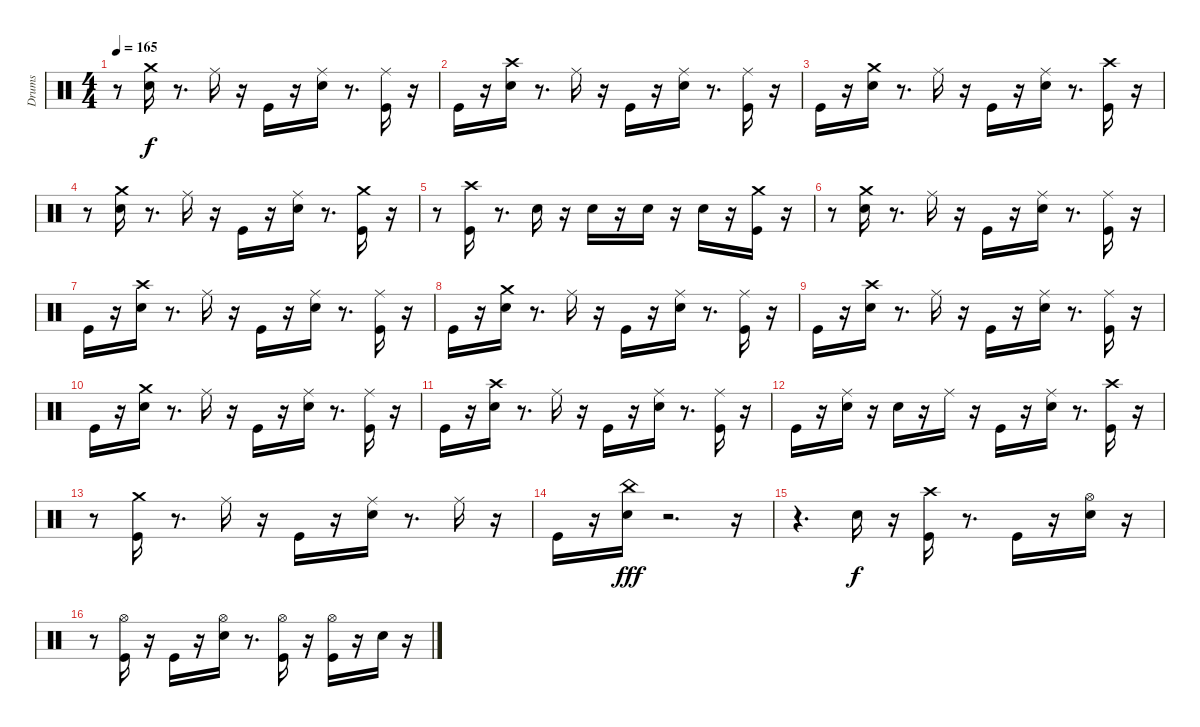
\track ("Drums" "Drums") {instrument percussion}
\staff {score}
\articulation defaults
\ts (4 4)
\tempo 165
\clef neutral
\ks c
r.8{dy f} ("Electric Snare (hit)" "Crash medium (hit)").16 r.8{d} "Ride (middle)".16 r.16 "Kick (hit)".16 r.16 ("Electric Snare (hit)" "Ride (middle)").16 r.8{d} ("Kick (hit)" "Ride (middle)").16 r.16 |
"Kick (hit)".16 r.16 ("Electric Snare (hit)" "Crash high (hit)").16 r.8{d} "Ride (middle)".16 r.16 "Kick (hit)".16 r.16 ("Electric Snare (hit)" "Ride (middle)").16 r.8{d} ("Kick (hit)" "Ride (middle)").16 r.16 |
"Kick (hit)".16 r.16 ("Electric Snare (hit)" "Crash medium (hit)").16 r.8{d} "Ride (middle)".16 r.16 "Kick (hit)".16 r.16 ("Electric Snare (hit)" "Ride (middle)").16 r.8{d} ("Kick (hit)" "Crash high (hit)").16 r.16 |
r.8 ("Electric Snare (hit)" "Crash medium (hit)").16 r.8{d} "Ride (middle)".16 r.16 "Kick (hit)".16 r.16 ("Electric Snare (hit)" "Ride (middle)").16 r.8{d} ("Kick (hit)" "Crash medium (hit)").16 r.16 |
r.8 ("Crash high (hit)" "Kick (hit)").16 r.8{d} "Electric Snare (hit)".16 r.16 "Electric Snare (hit)".16 r.16 "Electric Snare (hit)".16 r.16 "Electric Snare (hit)".16 r.16 ("Crash medium (hit)" "Kick (hit)").16 r.16 |
r.8 ("Electric Snare (hit)" "Crash medium (hit)").16 r.8{d} "Ride (middle)".16 r.16 "Kick (hit)".16 r.16 ("Electric Snare (hit)" "Ride (middle)").16 r.8{d} ("Kick (hit)" "Ride (middle)").16 r.16 |
"Kick (hit)".16 r.16 ("Electric Snare (hit)" "Crash high (hit)").16 r.8{d} "Ride (middle)".16 r.16 "Kick (hit)".16 r.16 ("Electric Snare (hit)" "Ride (middle)").16 r.8{d} ("Kick (hit)" "Ride (middle)").16 r.16 |
"Kick (hit)".16 r.16 ("Electric Snare (hit)" "Crash medium (hit)").16 r.8{d} "Ride (middle)".16 r.16 "Kick (hit)".16 r.16 ("Electric Snare (hit)" "Ride (middle)").16 r.8{d} ("Kick (hit)" "Ride (middle)").16 r.16 |
"Kick (hit)".16 r.16 ("Electric Snare (hit)" "Crash high (hit)").16 r.8{d} "Ride (middle)".16 r.16 "Kick (hit)".16 r.16 ("Electric Snare (hit)" "Ride (middle)").16 r.8{d} ("Kick (hit)" "Ride (middle)").16 r.16 |
"Kick (hit)".16 r.16 ("Electric Snare (hit)" "Crash medium (hit)").16 r.8{d} "Ride (middle)".16 r.16 "Kick (hit)".16 r.16 ("Electric Snare (hit)" "Ride (middle)").16 r.8{d} ("Kick (hit)" "Ride (middle)").16 r.16 |
"Kick (hit)".16 r.16 ("Electric Snare (hit)" "Crash high (hit)").16 r.8{d} "Ride (middle)".16 r.16 "Kick (hit)".16 r.16 ("Electric Snare (hit)" "Ride (middle)").16 r.8{d} ("Kick (hit)" "Ride (middle)").16 r.16 |
"Kick (hit)".16 r.16 ("Electric Snare (hit)" "Ride (middle)").16 r.16 "Electric Snare (hit)".16 r.16 "Ride (middle)".16 r.16 "Kick (hit)".16 r.16 ("Electric Snare (hit)" "Ride (middle)").16 r.8{d} ("Kick (hit)" "Crash high (hit)").16 r.16 |
r.8 ("Kick (hit)" "Crash medium (hit)").16 r.8{d} "Ride (middle)".16 r.16 "Kick (hit)".16 r.16 ("Electric Snare (hit)" "Ride (middle)").16 r.8{d} "Ride (middle)".16 r.16 |
"Kick (hit)".16 r.16 ("China (hit)" "Electric Snare (hit)").16{dy fff} r.2{d} r.16 |
r.4{d} "Electric Snare (hit)".16{dy f} r.16 ("Kick (hit)" "Crash high (hit)").16 r.8{d} "Kick (hit)".16 r.16 ("Hi-Hat (open)" "Electric Snare (hit)").16 r.16 |
r.8 ("Kick (hit)" "Hi-Hat (open)").16 r.16 "Kick (hit)".16 r.16 ("Electric Snare (hit)" "Hi-Hat (open)").16 r.8{d} ("Kick (hit)" "Hi-Hat (open)").16 r.16 ("Hi-Hat (open)" "Kick (hit)").16 r.16 "Electric Snare (hit)".16 r.16
